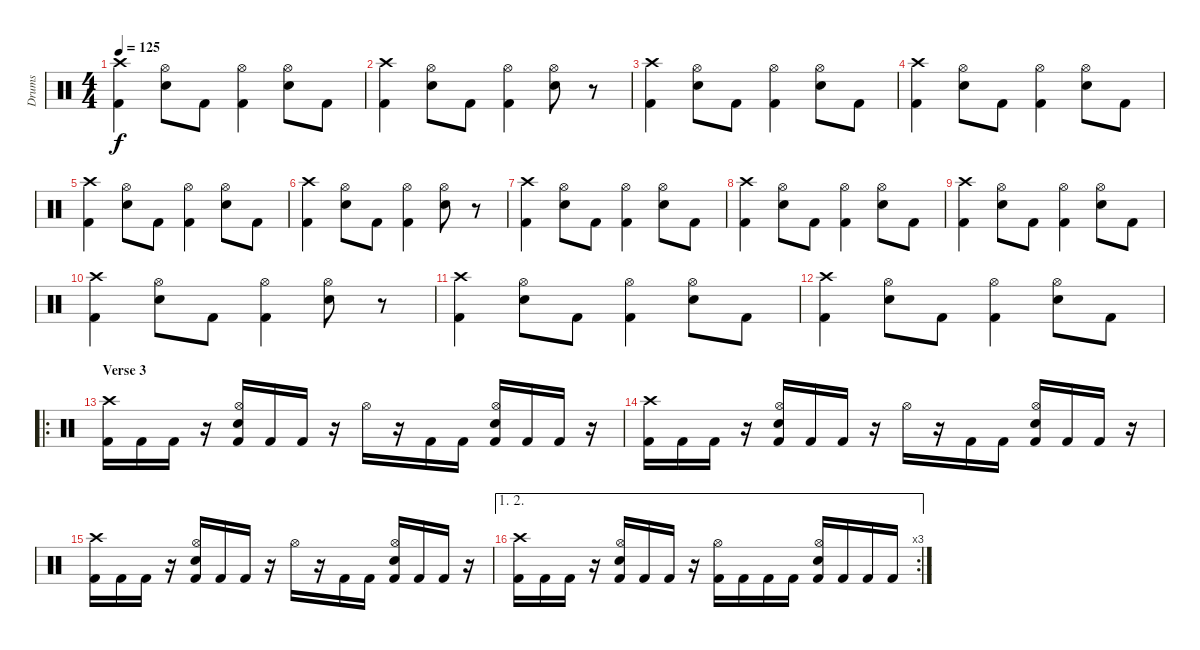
\track ("Drums" "Drums") {instrument percussion}
\staff {score}
\articulation defaults
\ts (4 4)
\tempo 125
\clef neutral
\ks c
("Crash high (hit)" "Kick (hit) 2").4{dy f} ("Hi-Hat (open)" "Snare (hit) 2").8 "Kick (hit) 2".8 ("Hi-Hat (open)" "Kick (hit) 2").4 ("Hi-Hat (open)" "Snare (hit) 2").8 "Kick (hit) 2".8 |
("Crash high (hit)" "Kick (hit) 2").4 ("Hi-Hat (open)" "Snare (hit) 2").8 "Kick (hit) 2".8 ("Hi-Hat (open)" "Kick (hit) 2").4 ("Hi-Hat (open)" "Snare (hit) 2").8 r.8 |
("Crash high (hit)" "Kick (hit) 2").4 ("Hi-Hat (open)" "Snare (hit) 2").8 "Kick (hit) 2".8 ("Hi-Hat (open)" "Kick (hit) 2").4 ("Hi-Hat (open)" "Snare (hit) 2").8 "Kick (hit) 2".8 |
("Crash high (hit)" "Kick (hit) 2").4 ("Hi-Hat (open)" "Snare (hit) 2").8 "Kick (hit) 2".8 ("Hi-Hat (open)" "Kick (hit) 2").4 ("Hi-Hat (open)" "Snare (hit) 2").8 "Kick (hit) 2".8 |
("Crash high (hit)" "Kick (hit) 2").4 ("Hi-Hat (open)" "Snare (hit) 2").8 "Kick (hit) 2".8 ("Hi-Hat (open)" "Kick (hit) 2").4 ("Hi-Hat (open)" "Snare (hit) 2").8 "Kick (hit) 2".8 |
("Crash high (hit)" "Kick (hit) 2").4 ("Hi-Hat (open)" "Snare (hit) 2").8 "Kick (hit) 2".8 ("Hi-Hat (open)" "Kick (hit) 2").4 ("Hi-Hat (open)" "Snare (hit) 2").8 r.8 |
("Crash high (hit)" "Kick (hit) 2").4 ("Hi-Hat (open)" "Snare (hit) 2").8 "Kick (hit) 2".8 ("Hi-Hat (open)" "Kick (hit) 2").4 ("Hi-Hat (open)" "Snare (hit) 2").8 "Kick (hit) 2".8 |
("Crash high (hit)" "Kick (hit) 2").4 ("Hi-Hat (open)" "Snare (hit) 2").8 "Kick (hit) 2".8 ("Hi-Hat (open)" "Kick (hit) 2").4 ("Hi-Hat (open)" "Snare (hit) 2").8 "Kick (hit) 2".8 |
("Crash high (hit)" "Kick (hit) 2").4 ("Hi-Hat (open)" "Snare (hit) 2").8 "Kick (hit) 2".8 ("Hi-Hat (open)" "Kick (hit) 2").4 ("Hi-Hat (open)" "Snare (hit) 2").8 "Kick (hit) 2".8 |
("Crash high (hit)" "Kick (hit) 2").4 ("Hi-Hat (open)" "Snare (hit) 2").8 "Kick (hit) 2".8 ("Hi-Hat (open)" "Kick (hit) 2").4 ("Hi-Hat (open)" "Snare (hit) 2").8 r.8 |
("Crash high (hit)" "Kick (hit) 2").4 ("Hi-Hat (open)" "Snare (hit) 2").8 "Kick (hit) 2".8 ("Hi-Hat (open)" "Kick (hit) 2").4 ("Hi-Hat (open)" "Snare (hit) 2").8 "Kick (hit) 2".8 |
("Crash high (hit)" "Kick (hit) 2").4 ("Hi-Hat (open)" "Snare (hit) 2").8 "Kick (hit) 2".8 ("Hi-Hat (open)" "Kick (hit) 2").4 ("Hi-Hat (open)" "Snare (hit) 2").8 "Kick (hit) 2".8 |
\ro
\section ("" "Verse 3")
("Crash high (hit)" "Kick (hit) 2").16 "Kick (hit) 2".16 "Kick (hit) 2".16 r.16 ("Hi-Hat (open)" "Snare (hit) 2" "Kick (hit) 2").16 "Kick (hit) 2".16 "Kick (hit) 2".16 r.16 "Hi-Hat (open)".16 r.16 "Kick (hit) 2".16 "Kick (hit) 2".16 ("Hi-Hat (open)" "Snare (hit) 2" "Kick (hit) 2").16 "Kick (hit) 2".16 "Kick (hit) 2".16 r.16 |
("Crash high (hit)" "Kick (hit) 2").16 "Kick (hit) 2".16 "Kick (hit) 2".16 r.16 ("Hi-Hat (open)" "Snare (hit) 2" "Kick (hit) 2").16 "Kick (hit) 2".16 "Kick (hit) 2".16 r.16 "Hi-Hat (open)".16 r.16 "Kick (hit) 2".16 "Kick (hit) 2".16 ("Hi-Hat (open)" "Snare (hit) 2" "Kick (hit) 2").16 "Kick (hit) 2".16 "Kick (hit) 2".16 r.16 |
("Crash high (hit)" "Kick (hit) 2").16 "Kick (hit) 2".16 "Kick (hit) 2".16 r.16 ("Hi-Hat (open)" "Snare (hit) 2" "Kick (hit) 2").16 "Kick (hit) 2".16 "Kick (hit) 2".16 r.16 "Hi-Hat (open)".16 r.16 "Kick (hit) 2".16 "Kick (hit) 2".16 ("Hi-Hat (open)" "Snare (hit) 2" "Kick (hit) 2").16 "Kick (hit) 2".16 "Kick (hit) 2".16 r.16 |
\ae (1 2)
\rc 3
("Crash high (hit)" "Kick (hit) 2").16 "Kick (hit) 2".16 "Kick (hit) 2".16 r.16 ("Hi-Hat (open)" "Snare (hit) 2" "Kick (hit) 2").16 "Kick (hit) 2".16 "Kick (hit) 2".16 r.16 ("Hi-Hat (open)" "Kick (hit) 2").16 "Kick (hit) 2".16 "Kick (hit) 2".16 "Kick (hit) 2".16 ("Hi-Hat (open)" "Snare (hit) 2" "Kick (hit) 2").16 "Kick (hit) 2".16 "Kick (hit) 2".16 "Kick (hit) 2".16
